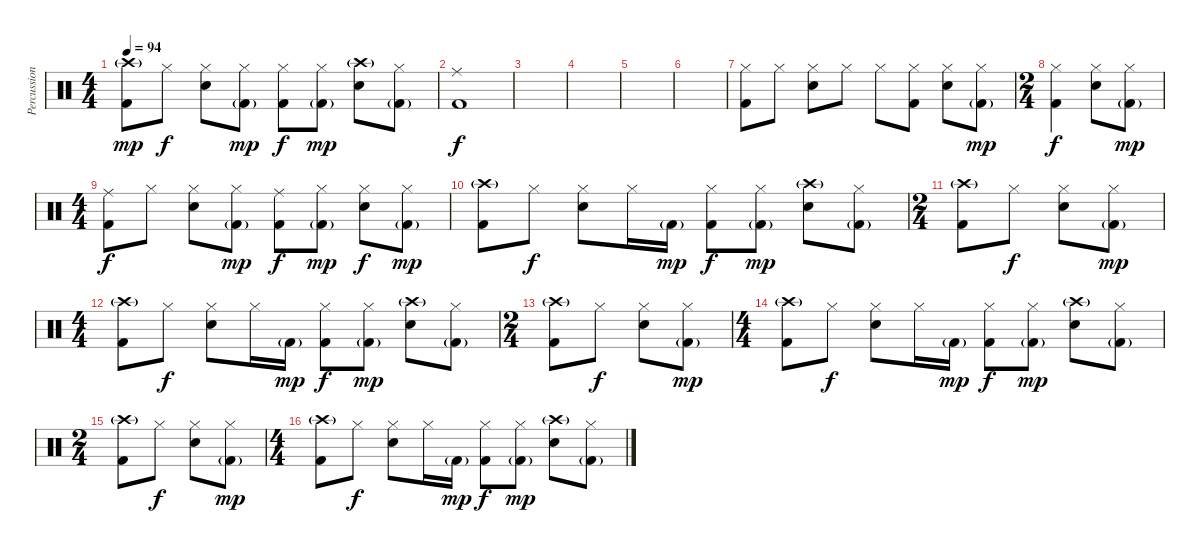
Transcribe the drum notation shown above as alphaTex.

\track ("Percussion" "Percussion") {instrument percussion}
\staff {score}
\articulation defaults
\ts (4 4)
\tempo 94
\clef neutral
\ks c
("Crash high (hit)"{g} "Kick (hit) 2").8{dy mp} "Hi-Hat (closed)".8{dy f} ("Hi-Hat (closed)" "Snare (hit) 2").8 ("Hi-Hat (closed)" "Kick (hit) 2"{g}).8{dy mp} ("Hi-Hat (closed)" "Kick (hit) 2").8{dy f} ("Hi-Hat (closed)" "Kick (hit) 2"{g}).8{dy mp} ("Crash high (hit)"{g} "Snare (hit) 2").8 ("Hi-Hat (closed)" "Kick (hit) 2"{g}).8 |
("Ride (middle)" "Kick (hit) 2").1{dy f} |
|
|
|
|
("Hi-Hat (closed)" "Kick (hit) 2").8 "Hi-Hat (closed)".8 ("Hi-Hat (closed)" "Snare (hit) 2").8 "Hi-Hat (closed)".8 "Hi-Hat (closed)".8 ("Hi-Hat (closed)" "Kick (hit) 2").8 ("Hi-Hat (closed)" "Snare (hit) 2").8 ("Hi-Hat (closed)" "Kick (hit) 2"{g}).8{dy mp} |
\ts (2 4)
("Hi-Hat (closed)" "Kick (hit) 2").4{dy f} ("Hi-Hat (closed)" "Snare (hit) 2").8 ("Hi-Hat (closed)" "Kick (hit) 2"{g}).8{dy mp} |
\ts (4 4)
("Ride (middle)" "Kick (hit) 2").8{dy f} "Hi-Hat (closed)".8 ("Hi-Hat (closed)" "Snare (hit) 2").8 ("Hi-Hat (closed)" "Kick (hit) 2"{g}).8{dy mp} ("Ride (middle)" "Kick (hit) 2").8{dy f} ("Hi-Hat (closed)" "Kick (hit) 2"{g}).8{dy mp} ("Hi-Hat (closed)" "Snare (hit) 2").8{dy f} ("Hi-Hat (closed)" "Kick (hit) 2"{g}).8{dy mp} |
("Crash high (hit)"{g} "Kick (hit) 2").8 "Hi-Hat (closed)".8{dy f} ("Hi-Hat (closed)" "Snare (hit) 2").8 "Hi-Hat (closed)".16 "Kick (hit) 2"{g}.16{dy mp} ("Hi-Hat (closed)" "Kick (hit) 2").8{dy f} ("Hi-Hat (closed)" "Kick (hit) 2"{g}).8{dy mp} ("Crash high (hit)"{g} "Snare (hit) 2").8 ("Hi-Hat (closed)" "Kick (hit) 2"{g}).8 |
\ts (2 4)
("Crash high (hit)"{g} "Kick (hit) 2").8 "Hi-Hat (closed)".8{dy f} ("Hi-Hat (closed)" "Snare (hit) 2").8 ("Hi-Hat (closed)" "Kick (hit) 2"{g}).8{dy mp} |
\ts (4 4)
("Crash high (hit)"{g} "Kick (hit) 2").8 "Hi-Hat (closed)".8{dy f} ("Hi-Hat (closed)" "Snare (hit) 2").8 "Hi-Hat (closed)".16 "Kick (hit) 2"{g}.16{dy mp} ("Hi-Hat (closed)" "Kick (hit) 2").8{dy f} ("Hi-Hat (closed)" "Kick (hit) 2"{g}).8{dy mp} ("Crash high (hit)"{g} "Snare (hit) 2").8 ("Hi-Hat (closed)" "Kick (hit) 2"{g}).8 |
\ts (2 4)
("Crash high (hit)"{g} "Kick (hit) 2").8 "Hi-Hat (closed)".8{dy f} ("Hi-Hat (closed)" "Snare (hit) 2").8 ("Hi-Hat (closed)" "Kick (hit) 2"{g}).8{dy mp} |
\ts (4 4)
("Crash high (hit)"{g} "Kick (hit) 2").8 "Hi-Hat (closed)".8{dy f} ("Hi-Hat (closed)" "Snare (hit) 2").8 "Hi-Hat (closed)".16 "Kick (hit) 2"{g}.16{dy mp} ("Hi-Hat (closed)" "Kick (hit) 2").8{dy f} ("Hi-Hat (closed)" "Kick (hit) 2"{g}).8{dy mp} ("Crash high (hit)"{g} "Snare (hit) 2").8 ("Hi-Hat (closed)" "Kick (hit) 2"{g}).8 |
\ts (2 4)
("Crash high (hit)"{g} "Kick (hit) 2").8 "Hi-Hat (closed)".8{dy f} ("Hi-Hat (closed)" "Snare (hit) 2").8 ("Hi-Hat (closed)" "Kick (hit) 2"{g}).8{dy mp} |
\ts (4 4)
("Crash high (hit)"{g} "Kick (hit) 2").8 "Hi-Hat (closed)".8{dy f} ("Hi-Hat (closed)" "Snare (hit) 2").8 "Hi-Hat (closed)".16 "Kick (hit) 2"{g}.16{dy mp} ("Hi-Hat (closed)" "Kick (hit) 2").8{dy f} ("Hi-Hat (closed)" "Kick (hit) 2"{g}).8{dy mp} ("Crash high (hit)"{g} "Snare (hit) 2").8 ("Hi-Hat (closed)" "Kick (hit) 2"{g}).8
